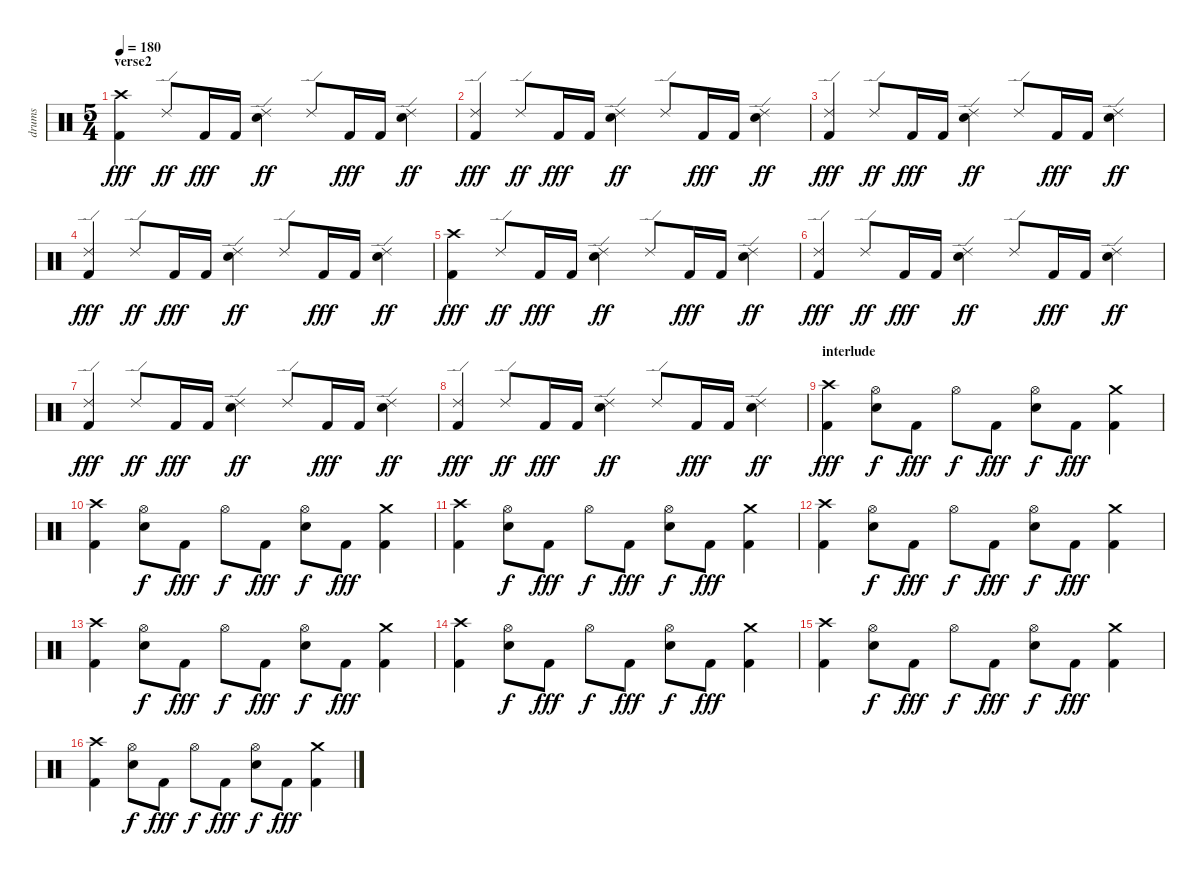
\track ("drums" "drums") {instrument percussion}
\staff {score}
\articulation defaults
\ts (5 4)
\section ("" "verse2")
\tempo 180
\clef neutral
\ks c
("Crash high (hit)" "Kick (hit) 2").4{dy fff} "Ride (edge) 2".8{dy ff} "Kick (hit) 2".16{dy fff} "Kick (hit) 2".16 ("Ride (edge) 2" "Snare (hit) 2").4{dy ff} "Ride (edge) 2".8 "Kick (hit) 2".16{dy fff} "Kick (hit) 2".16 ("Ride (edge) 2" "Snare (hit) 2").4{dy ff} |
("Ride (edge) 2" "Kick (hit) 2").4{dy fff} "Ride (edge) 2".8{dy ff} "Kick (hit) 2".16{dy fff} "Kick (hit) 2".16 ("Ride (edge) 2" "Snare (hit) 2").4{dy ff} "Ride (edge) 2".8 "Kick (hit) 2".16{dy fff} "Kick (hit) 2".16 ("Ride (edge) 2" "Snare (hit) 2").4{dy ff} |
("Ride (edge) 2" "Kick (hit) 2").4{dy fff} "Ride (edge) 2".8{dy ff} "Kick (hit) 2".16{dy fff} "Kick (hit) 2".16 ("Ride (edge) 2" "Snare (hit) 2").4{dy ff} "Ride (edge) 2".8 "Kick (hit) 2".16{dy fff} "Kick (hit) 2".16 ("Ride (edge) 2" "Snare (hit) 2").4{dy ff} |
("Ride (edge) 2" "Kick (hit) 2").4{dy fff} "Ride (edge) 2".8{dy ff} "Kick (hit) 2".16{dy fff} "Kick (hit) 2".16 ("Ride (edge) 2" "Snare (hit) 2").4{dy ff} "Ride (edge) 2".8 "Kick (hit) 2".16{dy fff} "Kick (hit) 2".16 ("Ride (edge) 2" "Snare (hit) 2").4{dy ff} |
("Crash high (hit)" "Kick (hit) 2").4{dy fff} "Ride (edge) 2".8{dy ff} "Kick (hit) 2".16{dy fff} "Kick (hit) 2".16 ("Ride (edge) 2" "Snare (hit) 2").4{dy ff} "Ride (edge) 2".8 "Kick (hit) 2".16{dy fff} "Kick (hit) 2".16 ("Ride (edge) 2" "Snare (hit) 2").4{dy ff} |
("Ride (edge) 2" "Kick (hit) 2").4{dy fff} "Ride (edge) 2".8{dy ff} "Kick (hit) 2".16{dy fff} "Kick (hit) 2".16 ("Ride (edge) 2" "Snare (hit) 2").4{dy ff} "Ride (edge) 2".8 "Kick (hit) 2".16{dy fff} "Kick (hit) 2".16 ("Ride (edge) 2" "Snare (hit) 2").4{dy ff} |
("Ride (edge) 2" "Kick (hit) 2").4{dy fff} "Ride (edge) 2".8{dy ff} "Kick (hit) 2".16{dy fff} "Kick (hit) 2".16 ("Ride (edge) 2" "Snare (hit) 2").4{dy ff} "Ride (edge) 2".8 "Kick (hit) 2".16{dy fff} "Kick (hit) 2".16 ("Ride (edge) 2" "Snare (hit) 2").4{dy ff} |
("Ride (edge) 2" "Kick (hit) 2").4{dy fff} "Ride (edge) 2".8{dy ff} "Kick (hit) 2".16{dy fff} "Kick (hit) 2".16 ("Ride (edge) 2" "Snare (hit) 2").4{dy ff} "Ride (edge) 2".8 "Kick (hit) 2".16{dy fff} "Kick (hit) 2".16 ("Ride (edge) 2" "Snare (hit) 2").4{dy ff} |
\section ("" "interlude")
("Crash high (hit)" "Kick (hit) 2").4{dy fff} ("Hi-Hat (open)" "Snare (hit) 2").8{dy f} "Kick (hit) 2".8{dy fff} "Hi-Hat (open)".8{dy f} "Kick (hit) 2".8{dy fff} ("Hi-Hat (open)" "Snare (hit) 2").8{dy f} "Kick (hit) 2".8{dy fff} ("Crash medium (hit)" "Kick (hit) 2").4 |
("Crash high (hit)" "Kick (hit) 2").4 ("Hi-Hat (open)" "Snare (hit) 2").8{dy f} "Kick (hit) 2".8{dy fff} "Hi-Hat (open)".8{dy f} "Kick (hit) 2".8{dy fff} ("Hi-Hat (open)" "Snare (hit) 2").8{dy f} "Kick (hit) 2".8{dy fff} ("Crash medium (hit)" "Kick (hit) 2").4 |
("Crash high (hit)" "Kick (hit) 2").4 ("Hi-Hat (open)" "Snare (hit) 2").8{dy f} "Kick (hit) 2".8{dy fff} "Hi-Hat (open)".8{dy f} "Kick (hit) 2".8{dy fff} ("Hi-Hat (open)" "Snare (hit) 2").8{dy f} "Kick (hit) 2".8{dy fff} ("Crash medium (hit)" "Kick (hit) 2").4 |
("Crash high (hit)" "Kick (hit) 2").4 ("Hi-Hat (open)" "Snare (hit) 2").8{dy f} "Kick (hit) 2".8{dy fff} "Hi-Hat (open)".8{dy f} "Kick (hit) 2".8{dy fff} ("Hi-Hat (open)" "Snare (hit) 2").8{dy f} "Kick (hit) 2".8{dy fff} ("Crash medium (hit)" "Kick (hit) 2").4 |
("Crash high (hit)" "Kick (hit) 2").4 ("Hi-Hat (open)" "Snare (hit) 2").8{dy f} "Kick (hit) 2".8{dy fff} "Hi-Hat (open)".8{dy f} "Kick (hit) 2".8{dy fff} ("Hi-Hat (open)" "Snare (hit) 2").8{dy f} "Kick (hit) 2".8{dy fff} ("Crash medium (hit)" "Kick (hit) 2").4 |
("Crash high (hit)" "Kick (hit) 2").4 ("Hi-Hat (open)" "Snare (hit) 2").8{dy f} "Kick (hit) 2".8{dy fff} "Hi-Hat (open)".8{dy f} "Kick (hit) 2".8{dy fff} ("Hi-Hat (open)" "Snare (hit) 2").8{dy f} "Kick (hit) 2".8{dy fff} ("Crash medium (hit)" "Kick (hit) 2").4 |
("Crash high (hit)" "Kick (hit) 2").4 ("Hi-Hat (open)" "Snare (hit) 2").8{dy f} "Kick (hit) 2".8{dy fff} "Hi-Hat (open)".8{dy f} "Kick (hit) 2".8{dy fff} ("Hi-Hat (open)" "Snare (hit) 2").8{dy f} "Kick (hit) 2".8{dy fff} ("Crash medium (hit)" "Kick (hit) 2").4 |
("Crash high (hit)" "Kick (hit) 2").4 ("Hi-Hat (open)" "Snare (hit) 2").8{dy f} "Kick (hit) 2".8{dy fff} "Hi-Hat (open)".8{dy f} "Kick (hit) 2".8{dy fff} ("Hi-Hat (open)" "Snare (hit) 2").8{dy f} "Kick (hit) 2".8{dy fff} ("Crash medium (hit)" "Kick (hit) 2").4
